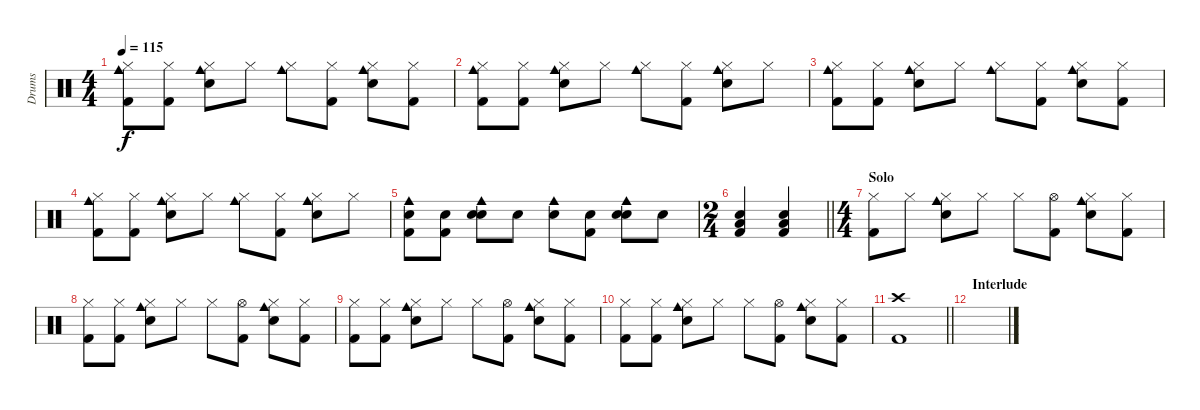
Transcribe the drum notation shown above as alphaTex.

\track ("Drums" "Drums") {instrument percussion}
\staff {score}
\articulation defaults
\ts (4 4)
\tempo 115
\clef neutral
\ks c
("Hi-Hat (closed)" "Cowbell medium (hit)" "Kick (hit) 2").8{dy f} ("Hi-Hat (closed)" "Kick (hit) 2").8 ("Hi-Hat (closed)" "Cowbell medium (hit)" "Snare (hit) 2").8 "Hi-Hat (closed)".8 ("Hi-Hat (closed)" "Cowbell medium (hit)").8 ("Hi-Hat (closed)" "Kick (hit) 2").8 ("Hi-Hat (closed)" "Cowbell medium (hit)" "Snare (hit) 2").8 ("Hi-Hat (closed)" "Kick (hit) 2").8 |
("Hi-Hat (closed)" "Cowbell medium (hit)" "Kick (hit) 2").8 ("Hi-Hat (closed)" "Kick (hit) 2").8 ("Hi-Hat (closed)" "Cowbell medium (hit)" "Snare (hit) 2").8 "Hi-Hat (closed)".8 ("Hi-Hat (closed)" "Cowbell medium (hit)").8 ("Hi-Hat (closed)" "Kick (hit) 2").8 ("Hi-Hat (closed)" "Cowbell medium (hit)" "Snare (hit) 2").8 "Hi-Hat (closed)".8 |
("Hi-Hat (closed)" "Cowbell medium (hit)" "Kick (hit) 2").8 ("Hi-Hat (closed)" "Kick (hit) 2").8 ("Hi-Hat (closed)" "Cowbell medium (hit)" "Snare (hit) 2").8 "Hi-Hat (closed)".8 ("Hi-Hat (closed)" "Cowbell medium (hit)").8 ("Hi-Hat (closed)" "Kick (hit) 2").8 ("Hi-Hat (closed)" "Cowbell medium (hit)" "Snare (hit) 2").8 ("Hi-Hat (closed)" "Kick (hit) 2").8 |
("Hi-Hat (closed)" "Cowbell medium (hit)" "Kick (hit) 2").8 ("Hi-Hat (closed)" "Kick (hit) 2").8 ("Hi-Hat (closed)" "Cowbell medium (hit)" "Snare (hit) 2").8 "Hi-Hat (closed)".8 ("Hi-Hat (closed)" "Cowbell medium (hit)").8 ("Hi-Hat (closed)" "Kick (hit) 2").8 ("Hi-Hat (closed)" "Cowbell medium (hit)" "Snare (hit) 2").8 "Hi-Hat (closed)".8 |
("Hand Clap (hit)" "Cowbell medium (hit)" "Kick (hit) 2").8 ("Hand Clap (hit)" "Kick (hit) 2").8 ("Hand Clap (hit)" "Cowbell medium (hit)" "Snare (hit) 2").8 "Hand Clap (hit)".8 ("Hand Clap (hit)" "Cowbell medium (hit)").8 ("Hand Clap (hit)" "Kick (hit) 2").8 ("Hand Clap (hit)" "Cowbell medium (hit)" "Snare (hit) 2").8 "Hand Clap (hit)".8 |
\ts (2 4)
\barLineRight lightlight
("Hand Clap (hit)" "Low Floor Tom (hit)" "Kick (hit) 2").4 ("Hand Clap (hit)" "Low Floor Tom (hit)" "Kick (hit) 2").4 |
\ts (4 4)
\section ("" "Solo")
("Hi-Hat (closed)" "Kick (hit) 2").8 "Hi-Hat (closed)".8 ("Hi-Hat (closed)" "Cowbell medium (hit)" "Snare (hit) 2").8 "Hi-Hat (closed)".8 "Hi-Hat (closed)".8 ("Hi-Hat (open)" "Kick (hit) 2").8 ("Hi-Hat (closed)" "Cowbell medium (hit)" "Snare (hit) 2").8 ("Hi-Hat (closed)" "Kick (hit) 2").8 |
("Hi-Hat (closed)" "Kick (hit) 2").8 ("Hi-Hat (closed)" "Kick (hit) 2").8 ("Hi-Hat (closed)" "Cowbell medium (hit)" "Snare (hit) 2").8 "Hi-Hat (closed)".8 "Hi-Hat (closed)".8 ("Hi-Hat (open)" "Kick (hit) 2").8 ("Hi-Hat (closed)" "Cowbell medium (hit)" "Snare (hit) 2").8 ("Hi-Hat (closed)" "Kick (hit) 2").8 |
("Hi-Hat (closed)" "Kick (hit) 2").8 ("Hi-Hat (closed)" "Kick (hit) 2").8 ("Hi-Hat (closed)" "Cowbell medium (hit)" "Snare (hit) 2").8 "Hi-Hat (closed)".8 "Hi-Hat (closed)".8 ("Hi-Hat (open)" "Kick (hit) 2").8 ("Hi-Hat (closed)" "Cowbell medium (hit)" "Snare (hit) 2").8 ("Hi-Hat (closed)" "Kick (hit) 2").8 |
("Hi-Hat (closed)" "Kick (hit) 2").8 ("Hi-Hat (closed)" "Kick (hit) 2").8 ("Hi-Hat (closed)" "Cowbell medium (hit)" "Snare (hit) 2").8 "Hi-Hat (closed)".8 "Hi-Hat (closed)".8 ("Hi-Hat (open)" "Kick (hit) 2").8 ("Hi-Hat (closed)" "Cowbell medium (hit)" "Snare (hit) 2").8 ("Hi-Hat (closed)" "Kick (hit) 2").8 |
\barLineRight lightlight
("Crash high (hit)" "Kick (hit) 2").1 |
\section ("" "Interlude")
